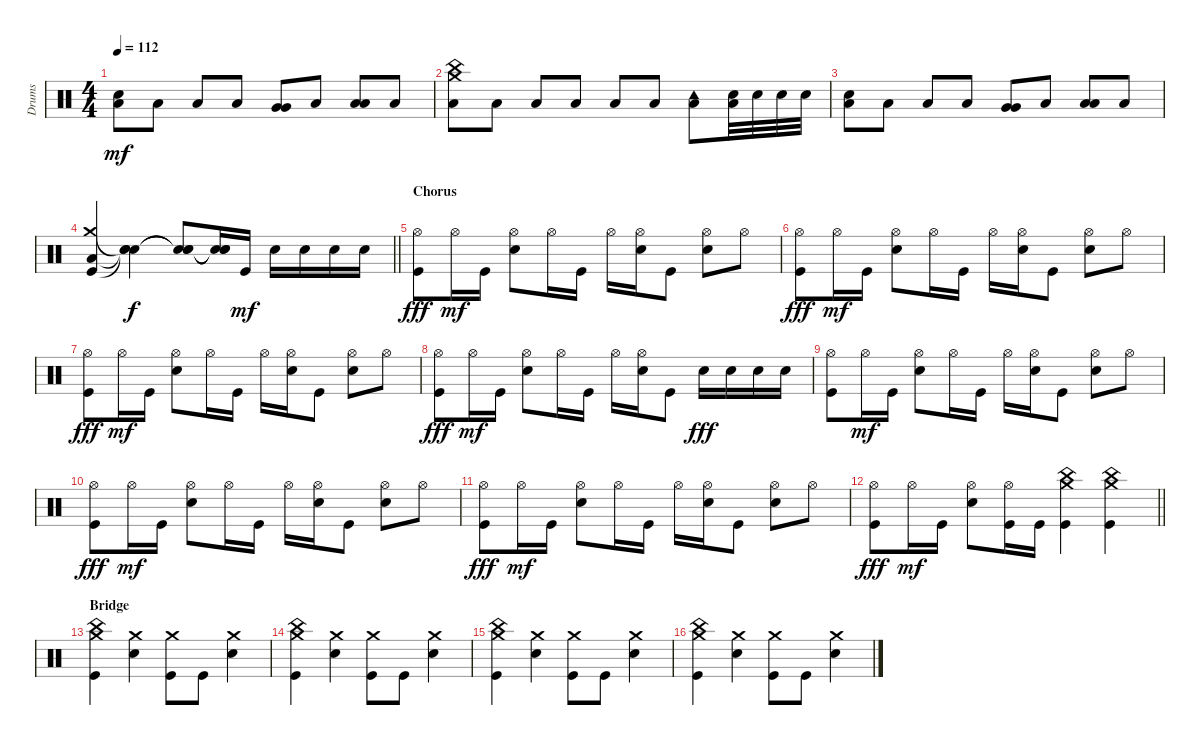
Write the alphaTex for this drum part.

\track ("Drums" "Drums") {instrument percussion}
\staff {score}
\articulation defaults
\ts (4 4)
\tempo 112
\clef neutral
\ks c
("Low Floor Tom (hit)" "Electric Snare (hit)").8{dy mf} "Low Floor Tom (hit)".8 "Low Floor Tom (hit)".8 "Low Floor Tom (hit)".8 ("Very Low Tom (hit)" "Very Low Tom (hit)").8 "Low Floor Tom (hit)".8 ("Low Floor Tom (hit)" "Low Floor Tom (hit)").8 "Low Floor Tom (hit)".8 |
("China (hit)" "Crash medium (hit)" "Low Floor Tom (hit)").8 "Low Floor Tom (hit)".8 "Low Floor Tom (hit)".8 "Low Floor Tom (hit)".8 "Low Floor Tom (hit)".8 "Low Floor Tom (hit)".8 ("Tambourine (hit)" "Low Floor Tom (hit)").8 ("Low Floor Tom (hit)" "Electric Snare (hit)").32 "Electric Snare (hit)".32 "Electric Snare (hit)".32 "Electric Snare (hit)".32 |
("Low Floor Tom (hit)" "Electric Snare (hit)").8 "Low Floor Tom (hit)".8 "Low Floor Tom (hit)".8 "Low Floor Tom (hit)".8 ("Very Low Tom (hit)" "Very Low Tom (hit)").8 "Low Floor Tom (hit)".8 ("Low Floor Tom (hit)" "Low Floor Tom (hit)").8 "Low Floor Tom (hit)".8 |
\barLineRight lightlight
("Crash medium (hit)" "Low Floor Tom (hit)" "Kick (hit)").4 ("Snare (hit)"{t} "Snare (hit)"{t} "Snare (hit)"{t}).4{dy f} ("Snare (hit)"{t} "Snare (hit)"{t} "Snare (hit)"{t}).8 ("Snare (hit)"{t} "Snare (hit)"{t} "Snare (hit)"{t}).16 "Kick (hit)".16{dy mf} "Electric Snare (hit)".16 "Electric Snare (hit)".16 "Electric Snare (hit)".16 "Electric Snare (hit)".16 |
\section ("" "Chorus")
("Hi-Hat (open)" "Kick (hit)").8{dy fff} "Hi-Hat (open)".16{dy mf} "Kick (hit)".16 ("Hi-Hat (open)" "Electric Snare (hit)").8 "Hi-Hat (open)".16 "Kick (hit)".16 "Hi-Hat (open)".16 ("Hi-Hat (open)" "Electric Snare (hit)").16 "Kick (hit)".8 ("Hi-Hat (open)" "Electric Snare (hit)").8 "Hi-Hat (open)".8 |
("Hi-Hat (open)" "Kick (hit)").8{dy fff} "Hi-Hat (open)".16{dy mf} "Kick (hit)".16 ("Hi-Hat (open)" "Electric Snare (hit)").8 "Hi-Hat (open)".16 "Kick (hit)".16 "Hi-Hat (open)".16 ("Hi-Hat (open)" "Electric Snare (hit)").16 "Kick (hit)".8 ("Hi-Hat (open)" "Electric Snare (hit)").8 "Hi-Hat (open)".8 |
("Hi-Hat (open)" "Kick (hit)").8{dy fff} "Hi-Hat (open)".16{dy mf} "Kick (hit)".16 ("Hi-Hat (open)" "Electric Snare (hit)").8 "Hi-Hat (open)".16 "Kick (hit)".16 "Hi-Hat (open)".16 ("Hi-Hat (open)" "Electric Snare (hit)").16 "Kick (hit)".8 ("Hi-Hat (open)" "Electric Snare (hit)").8 "Hi-Hat (open)".8 |
("Hi-Hat (open)" "Kick (hit)").8{dy fff} "Hi-Hat (open)".16{dy mf} "Kick (hit)".16 ("Hi-Hat (open)" "Electric Snare (hit)").8 "Hi-Hat (open)".16 "Kick (hit)".16 "Hi-Hat (open)".16 ("Hi-Hat (open)" "Electric Snare (hit)").16 "Kick (hit)".8 "Electric Snare (hit)".16{dy fff} "Electric Snare (hit)".16 "Electric Snare (hit)".16 "Electric Snare (hit)".16 |
("Hi-Hat (open)" "Kick (hit)").8 "Hi-Hat (open)".16{dy mf} "Kick (hit)".16 ("Hi-Hat (open)" "Electric Snare (hit)").8 "Hi-Hat (open)".16 "Kick (hit)".16 "Hi-Hat (open)".16 ("Hi-Hat (open)" "Electric Snare (hit)").16 "Kick (hit)".8 ("Hi-Hat (open)" "Electric Snare (hit)").8 "Hi-Hat (open)".8 |
("Hi-Hat (open)" "Kick (hit)").8{dy fff} "Hi-Hat (open)".16{dy mf} "Kick (hit)".16 ("Hi-Hat (open)" "Electric Snare (hit)").8 "Hi-Hat (open)".16 "Kick (hit)".16 "Hi-Hat (open)".16 ("Hi-Hat (open)" "Electric Snare (hit)").16 "Kick (hit)".8 ("Hi-Hat (open)" "Electric Snare (hit)").8 "Hi-Hat (open)".8 |
("Hi-Hat (open)" "Kick (hit)").8{dy fff} "Hi-Hat (open)".16{dy mf} "Kick (hit)".16 ("Hi-Hat (open)" "Electric Snare (hit)").8 "Hi-Hat (open)".16 "Kick (hit)".16 "Hi-Hat (open)".16 ("Hi-Hat (open)" "Electric Snare (hit)").16 "Kick (hit)".8 ("Hi-Hat (open)" "Electric Snare (hit)").8 "Hi-Hat (open)".8 |
\barLineRight lightlight
("Hi-Hat (open)" "Kick (hit)").8{dy fff} "Hi-Hat (open)".16{dy mf} "Kick (hit)".16 ("Hi-Hat (open)" "Electric Snare (hit)").8 ("Hi-Hat (open)" "Kick (hit)").16 "Kick (hit)".16 ("China (hit)" "Crash medium (hit)" "Kick (hit)").4 ("China (hit)" "Crash medium (hit)" "Kick (hit)").4 |
\section ("" "Bridge")
("China (hit)" "Crash medium (hit)" "Kick (hit)").4 ("Crash medium (hit)" "Electric Snare (hit)").4 ("Crash medium (hit)" "Kick (hit)").8 "Kick (hit)".8 ("Crash medium (hit)" "Electric Snare (hit)").4 |
("China (hit)" "Crash medium (hit)" "Kick (hit)").4 ("Crash medium (hit)" "Electric Snare (hit)").4 ("Crash medium (hit)" "Kick (hit)").8 "Kick (hit)".8 ("Crash medium (hit)" "Electric Snare (hit)").4 |
("China (hit)" "Crash medium (hit)" "Kick (hit)").4 ("Crash medium (hit)" "Electric Snare (hit)").4 ("Crash medium (hit)" "Kick (hit)").8 "Kick (hit)".8 ("Crash medium (hit)" "Electric Snare (hit)").4 |
("China (hit)" "Crash medium (hit)" "Kick (hit)").4 ("Crash medium (hit)" "Electric Snare (hit)").4 ("Crash medium (hit)" "Kick (hit)").8 "Kick (hit)".8 ("Crash medium (hit)" "Electric Snare (hit)").4
